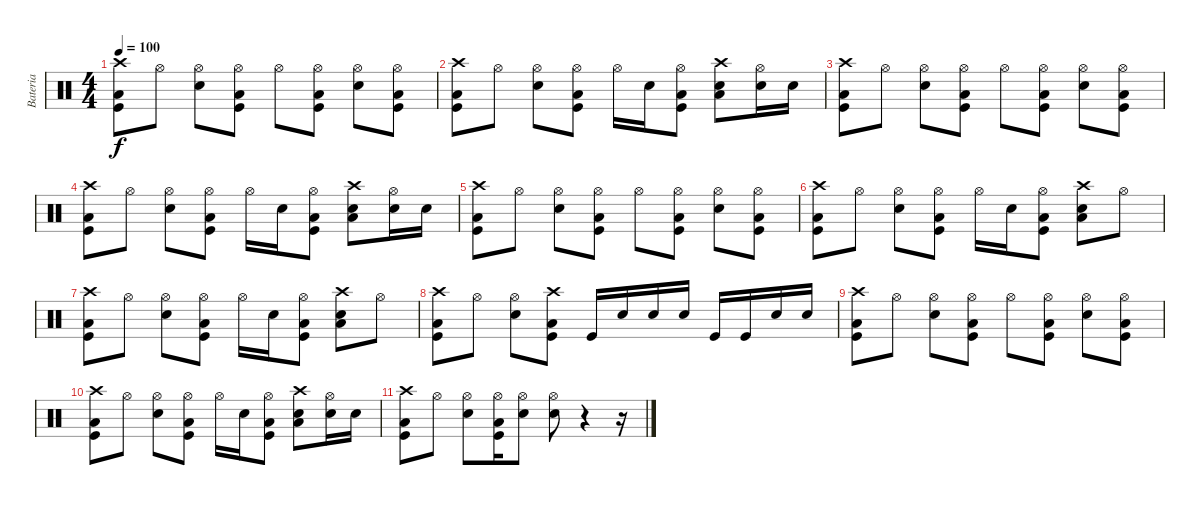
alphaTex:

\track ("Bateria" "Bateria") {instrument percussion}
\staff {score}
\articulation defaults
\ts (4 4)
\tempo 100
\clef neutral
\ks c
("Crash high (hit)" "Kick (hit)" "Low Tom (hit)").8{dy f} "Hi-Hat (open)".8 ("Hi-Hat (open)" "Snare (hit) 2").8 ("Hi-Hat (open)" "Kick (hit)" "Low Tom (hit)").8 "Hi-Hat (open)".8 ("Hi-Hat (open)" "Kick (hit)" "Low Tom (hit)").8 ("Hi-Hat (open)" "Snare (hit) 2").8 ("Hi-Hat (open)" "Kick (hit)" "Low Tom (hit)").8 |
("Crash high (hit)" "Kick (hit)" "Low Tom (hit)").8 "Hi-Hat (open)".8 ("Hi-Hat (open)" "Snare (hit) 2").8 ("Hi-Hat (open)" "Kick (hit)" "Low Tom (hit)").8 "Hi-Hat (open)".16 "Snare (hit) 2".16 ("Hi-Hat (open)" "Kick (hit)" "Low Tom (hit)").8 ("Crash high (hit)" "Snare (hit) 2" "Low Tom (hit)").8 ("Hi-Hat (open)" "Snare (hit) 2").16 "Snare (hit) 2".16 |
("Crash high (hit)" "Kick (hit)" "Low Tom (hit)").8 "Hi-Hat (open)".8 ("Hi-Hat (open)" "Snare (hit) 2").8 ("Hi-Hat (open)" "Kick (hit)" "Low Tom (hit)").8 "Hi-Hat (open)".8 ("Hi-Hat (open)" "Kick (hit)" "Low Tom (hit)").8 ("Hi-Hat (open)" "Snare (hit) 2").8 ("Hi-Hat (open)" "Kick (hit)" "Low Tom (hit)").8 |
("Crash high (hit)" "Kick (hit)" "Low Tom (hit)").8 "Hi-Hat (open)".8 ("Hi-Hat (open)" "Snare (hit) 2").8 ("Hi-Hat (open)" "Kick (hit)" "Low Tom (hit)").8 "Hi-Hat (open)".16 "Snare (hit) 2".16 ("Hi-Hat (open)" "Kick (hit)" "Low Tom (hit)").8 ("Crash high (hit)" "Snare (hit) 2" "Low Tom (hit)").8 ("Hi-Hat (open)" "Snare (hit) 2").16 "Snare (hit) 2".16 |
("Crash high (hit)" "Kick (hit)" "Low Tom (hit)").8 "Hi-Hat (open)".8 ("Hi-Hat (open)" "Snare (hit) 2").8 ("Hi-Hat (open)" "Kick (hit)" "Low Tom (hit)").8 "Hi-Hat (open)".8 ("Hi-Hat (open)" "Kick (hit)" "Low Tom (hit)").8 ("Hi-Hat (open)" "Snare (hit) 2").8 ("Hi-Hat (open)" "Kick (hit)" "Low Tom (hit)").8 |
("Crash high (hit)" "Kick (hit)" "Low Tom (hit)").8 "Hi-Hat (open)".8 ("Hi-Hat (open)" "Snare (hit) 2").8 ("Hi-Hat (open)" "Kick (hit)" "Low Tom (hit)").8 "Hi-Hat (open)".16 "Snare (hit) 2".16 ("Hi-Hat (open)" "Kick (hit)" "Low Tom (hit)").8 ("Crash high (hit)" "Snare (hit) 2" "Low Tom (hit)").8 "Hi-Hat (open)".8 |
("Crash high (hit)" "Kick (hit)" "Low Tom (hit)").8 "Hi-Hat (open)".8 ("Hi-Hat (open)" "Snare (hit) 2").8 ("Hi-Hat (open)" "Kick (hit)" "Low Tom (hit)").8 "Hi-Hat (open)".16 "Snare (hit) 2".16 ("Hi-Hat (open)" "Kick (hit)" "Low Tom (hit)").8 ("Crash high (hit)" "Snare (hit) 2" "Low Tom (hit)").8 "Hi-Hat (open)".8 |
("Crash high (hit)" "Kick (hit)" "Low Tom (hit)").8 "Hi-Hat (open)".8 ("Hi-Hat (open)" "Snare (hit) 2").8 ("Crash high (hit)" "Kick (hit)" "Low Tom (hit)").8 "Kick (hit)".16 "Snare (hit) 2".16 "Snare (hit) 2".16 "Snare (hit) 2".16 "Kick (hit)".16 "Kick (hit)".16 "Snare (hit) 2".16 "Snare (hit) 2".16 |
("Crash high (hit)" "Kick (hit)" "Low Tom (hit)").8 "Hi-Hat (open)".8 ("Hi-Hat (open)" "Snare (hit) 2").8 ("Hi-Hat (open)" "Kick (hit)" "Low Tom (hit)").8 "Hi-Hat (open)".8 ("Hi-Hat (open)" "Kick (hit)" "Low Tom (hit)").8 ("Hi-Hat (open)" "Snare (hit) 2").8 ("Hi-Hat (open)" "Kick (hit)" "Low Tom (hit)").8 |
("Crash high (hit)" "Kick (hit)" "Low Tom (hit)").8 "Hi-Hat (open)".8 ("Hi-Hat (open)" "Snare (hit) 2").8 ("Hi-Hat (open)" "Kick (hit)" "Low Tom (hit)").8 "Hi-Hat (open)".16 "Snare (hit) 2".16 ("Hi-Hat (open)" "Kick (hit)" "Low Tom (hit)").8 ("Crash high (hit)" "Snare (hit) 2" "Low Tom (hit)").8 ("Hi-Hat (open)" "Snare (hit) 2").16 "Snare (hit) 2".16 |
("Crash high (hit)" "Kick (hit)" "Low Tom (hit)").8 "Hi-Hat (open)".8 ("Hi-Hat (open)" "Snare (hit) 2").8 ("Hi-Hat (open)" "Kick (hit)" "Low Tom (hit)").16 ("Hi-Hat (open)" "Snare (hit) 2").8 ("Hi-Hat (open)" "Snare (hit) 2").8 r.4 r.16
